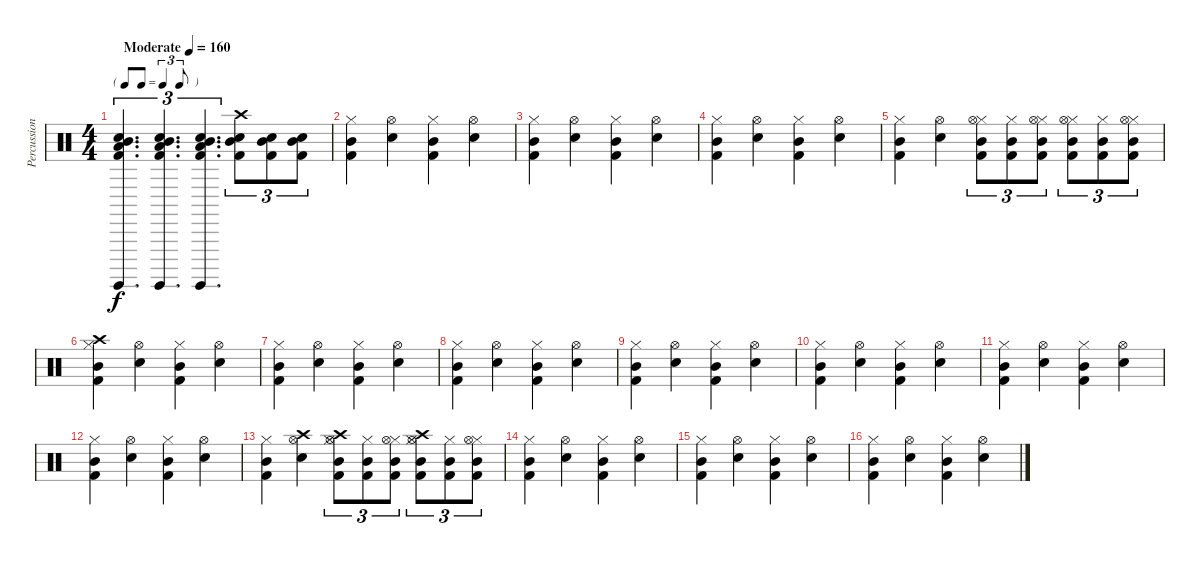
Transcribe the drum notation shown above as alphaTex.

\track ("Percussion" "Percussion") {instrument percussion}
\staff {score}
\articulation defaults
\ts (4 4)
\tf triplet8th
\tempo (160 "Moderate")
\clef neutral
\ks c
("Kick (hit) 2" "Surdo (hit)" "Mid Tom (hit)" "Electric Snare (hit)" "Low Floor Tom (hit)").4{d tu (3 2) dy f} ("Surdo (hit)" "Kick (hit) 2" "Mid Tom (hit)" "Electric Snare (hit)" "Low Floor Tom (hit)").4{d tu (3 2)} ("Surdo (hit)" "Kick (hit) 2" "Mid Tom (hit)" "Electric Snare (hit)" "Low Floor Tom (hit)").4{d tu (3 2)} ("Electric Snare (hit)" "Crash high (hit)" "Kick (hit) 2" "Mid Tom (hit)").8{tu (3 2)} ("Electric Snare (hit)" "Kick (hit) 2" "Mid Tom (hit)").8{tu (3 2)} ("Electric Snare (hit)" "Kick (hit) 2" "Mid Tom (hit)").8{tu (3 2)} |
("Hi-Hat (closed)" "Kick (hit) 2" "Mid Tom (hit)").4 ("Hi-Hat (open)" "Electric Snare (hit)").4 ("Hi-Hat (closed)" "Kick (hit) 2" "Mid Tom (hit)").4 ("Hi-Hat (open)" "Electric Snare (hit)").4 |
("Hi-Hat (closed)" "Kick (hit) 2" "Mid Tom (hit)").4 ("Hi-Hat (open)" "Electric Snare (hit)").4 ("Hi-Hat (closed)" "Kick (hit) 2" "Mid Tom (hit)").4 ("Hi-Hat (open)" "Electric Snare (hit)").4 |
("Hi-Hat (closed)" "Kick (hit) 2" "Mid Tom (hit)").4 ("Hi-Hat (open)" "Electric Snare (hit)").4 ("Hi-Hat (closed)" "Kick (hit) 2" "Mid Tom (hit)").4 ("Hi-Hat (open)" "Electric Snare (hit)").4 |
("Hi-Hat (closed)" "Kick (hit) 2" "Mid Tom (hit)").4 ("Hi-Hat (open)" "Electric Snare (hit)").4 ("Hi-Hat (closed)" "Kick (hit) 2" "Mid Tom (hit)" "Hi-Hat (open)").8{tu (3 2)} ("Hi-Hat (closed)" "Kick (hit) 2" "Mid Tom (hit)").8{tu (3 2)} ("Hi-Hat (closed)" "Kick (hit) 2" "Mid Tom (hit)" "Hi-Hat (open)").8{tu (3 2)} ("Hi-Hat (closed)" "Kick (hit) 2" "Mid Tom (hit)" "Hi-Hat (open)").8{tu (3 2)} ("Hi-Hat (closed)" "Kick (hit) 2" "Mid Tom (hit)").8{tu (3 2)} ("Hi-Hat (closed)" "Kick (hit) 2" "Mid Tom (hit)" "Hi-Hat (open)").8{tu (3 2)} |
("Hi-Hat (closed)" "Kick (hit) 2" "Mid Tom (hit)" "Crash high (hit)").4 ("Hi-Hat (open)" "Electric Snare (hit)").4 ("Hi-Hat (closed)" "Kick (hit) 2" "Mid Tom (hit)").4 ("Hi-Hat (open)" "Electric Snare (hit)").4 |
("Hi-Hat (closed)" "Kick (hit) 2" "Mid Tom (hit)").4 ("Hi-Hat (open)" "Electric Snare (hit)").4 ("Hi-Hat (closed)" "Kick (hit) 2" "Mid Tom (hit)").4 ("Hi-Hat (open)" "Electric Snare (hit)").4 |
("Hi-Hat (closed)" "Kick (hit) 2" "Mid Tom (hit)").4 ("Hi-Hat (open)" "Electric Snare (hit)").4 ("Hi-Hat (closed)" "Kick (hit) 2" "Mid Tom (hit)").4 ("Hi-Hat (open)" "Electric Snare (hit)").4 |
("Hi-Hat (closed)" "Kick (hit) 2" "Mid Tom (hit)").4 ("Hi-Hat (open)" "Electric Snare (hit)").4 ("Hi-Hat (closed)" "Kick (hit) 2" "Mid Tom (hit)").4 ("Hi-Hat (open)" "Electric Snare (hit)").4 |
("Hi-Hat (closed)" "Kick (hit) 2" "Mid Tom (hit)").4 ("Hi-Hat (open)" "Electric Snare (hit)").4 ("Hi-Hat (closed)" "Kick (hit) 2" "Mid Tom (hit)").4 ("Hi-Hat (open)" "Electric Snare (hit)").4 |
("Hi-Hat (closed)" "Kick (hit) 2" "Mid Tom (hit)").4 ("Hi-Hat (open)" "Electric Snare (hit)").4 ("Hi-Hat (closed)" "Kick (hit) 2" "Mid Tom (hit)").4 ("Hi-Hat (open)" "Electric Snare (hit)").4 |
("Hi-Hat (closed)" "Kick (hit) 2" "Mid Tom (hit)").4 ("Hi-Hat (open)" "Electric Snare (hit)").4 ("Hi-Hat (closed)" "Kick (hit) 2" "Mid Tom (hit)").4 ("Hi-Hat (open)" "Electric Snare (hit)").4 |
("Hi-Hat (closed)" "Kick (hit) 2" "Mid Tom (hit)").4 ("Hi-Hat (open)" "Electric Snare (hit)" "Crash high (hit)").4 ("Hi-Hat (closed)" "Kick (hit) 2" "Mid Tom (hit)" "Crash high (hit)" "Hi-Hat (open)").8{tu (3 2)} ("Hi-Hat (closed)" "Kick (hit) 2" "Mid Tom (hit)").8{tu (3 2)} ("Hi-Hat (closed)" "Kick (hit) 2" "Mid Tom (hit)" "Hi-Hat (open)").8{tu (3 2)} ("Hi-Hat (closed)" "Kick (hit) 2" "Mid Tom (hit)" "Crash high (hit)" "Hi-Hat (open)").8{tu (3 2)} ("Hi-Hat (closed)" "Kick (hit) 2" "Mid Tom (hit)").8{tu (3 2)} ("Hi-Hat (closed)" "Kick (hit) 2" "Mid Tom (hit)" "Hi-Hat (open)").8{tu (3 2)} |
("Hi-Hat (closed)" "Kick (hit) 2" "Mid Tom (hit)").4 ("Hi-Hat (open)" "Electric Snare (hit)").4 ("Hi-Hat (closed)" "Kick (hit) 2" "Mid Tom (hit)").4 ("Hi-Hat (open)" "Electric Snare (hit)").4 |
("Hi-Hat (closed)" "Kick (hit) 2" "Mid Tom (hit)").4 ("Hi-Hat (open)" "Electric Snare (hit)").4 ("Hi-Hat (closed)" "Kick (hit) 2" "Mid Tom (hit)").4 ("Hi-Hat (open)" "Electric Snare (hit)").4 |
("Hi-Hat (closed)" "Kick (hit) 2" "Mid Tom (hit)").4 ("Hi-Hat (open)" "Electric Snare (hit)").4 ("Hi-Hat (closed)" "Kick (hit) 2" "Mid Tom (hit)").4 ("Hi-Hat (open)" "Electric Snare (hit)").4
